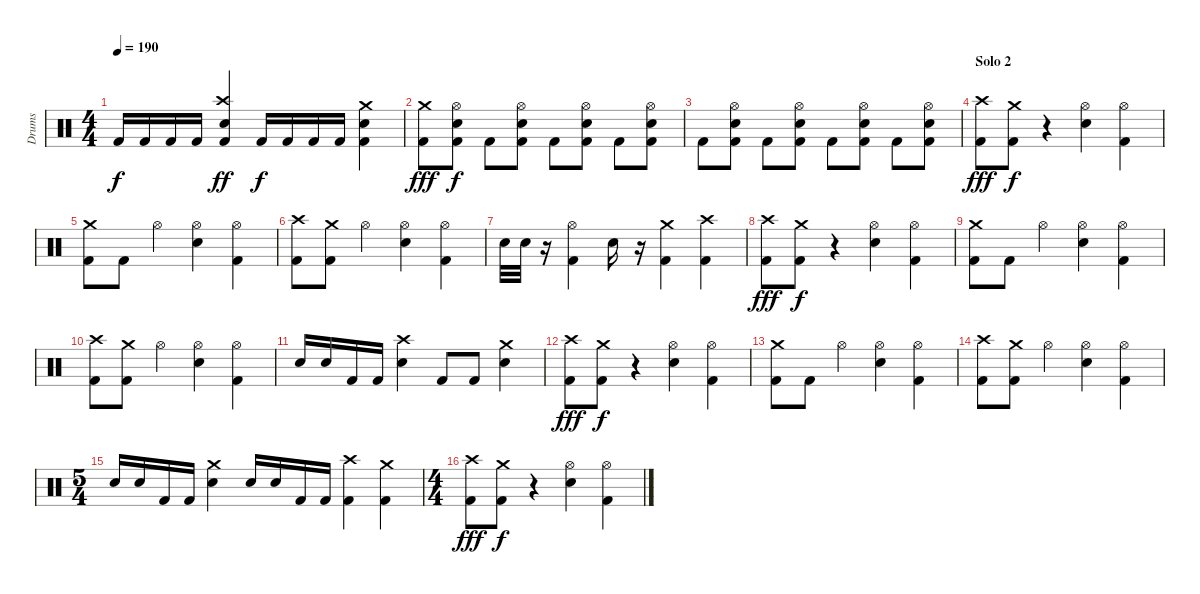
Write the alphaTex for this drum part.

\track ("Drums" "Drums") {instrument percussion}
\staff {score}
\articulation defaults
\ts (4 4)
\tempo 190
\clef neutral
\ks c "Kick (hit) 2".16{dy f} "Kick (hit) 2".16 "Kick (hit) 2".16 "Kick (hit) 2".16
("Crash high (hit)" "Snare (hit) 2" "Kick (hit) 2").4{dy ff} "Kick (hit) 2".16{dy f} "Kick (hit) 2".16 "Kick (hit) 2".16 "Kick (hit) 2".16 ("Crash medium (hit)" "Snare (hit) 2" "Kick (hit) 2").4 |
("Crash medium (hit)" "Kick (hit) 2").8{dy fff} ("Hi-Hat (open)" "Snare (hit) 2" "Kick (hit) 2").8{dy f} "Kick (hit) 2".8 ("Hi-Hat (open)" "Snare (hit) 2" "Kick (hit) 2").8 "Kick (hit) 2".8 ("Hi-Hat (open)" "Snare (hit) 2" "Kick (hit) 2").8 "Kick (hit) 2".8 ("Hi-Hat (open)" "Snare (hit) 2" "Kick (hit) 2").8 |
"Kick (hit) 2".8 ("Hi-Hat (open)" "Snare (hit) 2" "Kick (hit) 2").8 "Kick (hit) 2".8 ("Hi-Hat (open)" "Snare (hit) 2" "Kick (hit) 2").8 "Kick (hit) 2".8 ("Hi-Hat (open)" "Snare (hit) 2" "Kick (hit) 2").8 "Kick (hit) 2".8 ("Hi-Hat (open)" "Snare (hit) 2" "Kick (hit) 2").8 |
\section ("" "Solo 2")
("Crash high (hit)" "Kick (hit) 2").8{dy fff} ("Crash medium (hit)" "Kick (hit) 2").8{dy f} r.4 ("Hi-Hat (open)" "Snare (hit) 2").4 ("Hi-Hat (open)" "Kick (hit) 2").4 |
("Crash medium (hit)" "Kick (hit) 2").8 "Kick (hit) 2".8 "Hi-Hat (open)".4 ("Hi-Hat (open)" "Snare (hit) 2").4 ("Hi-Hat (open)" "Kick (hit) 2").4 |
("Crash high (hit)" "Kick (hit) 2").8 ("Crash medium (hit)" "Kick (hit) 2").8 "Hi-Hat (open)".4 ("Hi-Hat (open)" "Snare (hit) 2").4 ("Hi-Hat (open)" "Kick (hit) 2").4 |
"Snare (hit) 2".32 "Snare (hit) 2".32 r.16 ("Hi-Hat (open)" "Kick (hit) 2").4 "Snare (hit) 2".16 r.16 ("Crash medium (hit)" "Kick (hit) 2").4 ("Crash high (hit)" "Kick (hit) 2").4 |
("Crash high (hit)" "Kick (hit) 2").8{dy fff} ("Crash medium (hit)" "Kick (hit) 2").8{dy f} r.4 ("Hi-Hat (open)" "Snare (hit) 2").4 ("Hi-Hat (open)" "Kick (hit) 2").4 |
("Crash medium (hit)" "Kick (hit) 2").8 "Kick (hit) 2".8 "Hi-Hat (open)".4 ("Hi-Hat (open)" "Snare (hit) 2").4 ("Hi-Hat (open)" "Kick (hit) 2").4 |
("Crash high (hit)" "Kick (hit) 2").8 ("Crash medium (hit)" "Kick (hit) 2").8 "Hi-Hat (open)".4 ("Hi-Hat (open)" "Snare (hit) 2").4 ("Hi-Hat (open)" "Kick (hit) 2").4 |
"Snare (hit) 2".16 "Snare (hit) 2".16 "Kick (hit) 2".16 "Kick (hit) 2".16 ("Crash high (hit)" "Snare (hit) 2").4 "Kick (hit) 2".8 "Kick (hit) 2".8 ("Crash medium (hit)" "Snare (hit) 2").4 |
("Crash high (hit)" "Kick (hit) 2").8{dy fff} ("Crash medium (hit)" "Kick (hit) 2").8{dy f} r.4 ("Hi-Hat (open)" "Snare (hit) 2").4 ("Hi-Hat (open)" "Kick (hit) 2").4 |
("Crash medium (hit)" "Kick (hit) 2").8 "Kick (hit) 2".8 "Hi-Hat (open)".4 ("Hi-Hat (open)" "Snare (hit) 2").4 ("Hi-Hat (open)" "Kick (hit) 2").4 |
("Crash high (hit)" "Kick (hit) 2").8 ("Crash medium (hit)" "Kick (hit) 2").8 "Hi-Hat (open)".4 ("Hi-Hat (open)" "Snare (hit) 2").4 ("Hi-Hat (open)" "Kick (hit) 2").4 |
\ts (5 4)
"Snare (hit) 2".16 "Snare (hit) 2".16 "Kick (hit) 2".16 "Kick (hit) 2".16 ("Crash medium (hit)" "Snare (hit) 2").4 "Snare (hit) 2".16 "Snare (hit) 2".16 "Kick (hit) 2".16 "Kick (hit) 2".16 ("Crash high (hit)" "Kick (hit) 2").4 ("Crash medium (hit)" "Kick (hit) 2").4 |
\ts (4 4)
("Crash high (hit)" "Kick (hit) 2").8{dy fff} ("Crash medium (hit)" "Kick (hit) 2").8{dy f} r.4 ("Hi-Hat (open)" "Snare (hit) 2").4 ("Hi-Hat (open)" "Kick (hit) 2").4
